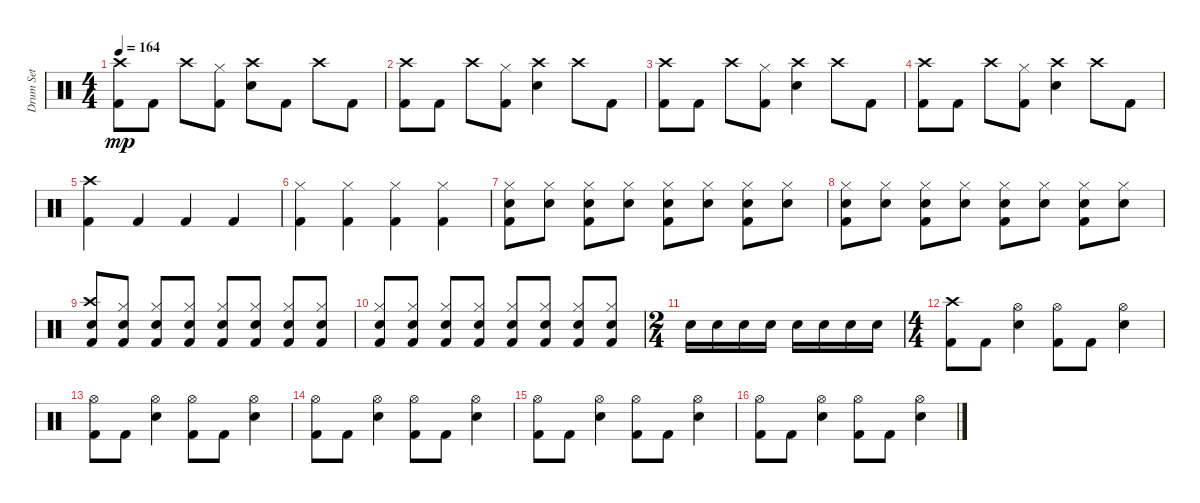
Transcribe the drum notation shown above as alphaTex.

\track ("Drum Set" "Drum Set") {instrument percussion}
\staff {score}
\articulation defaults
\ts (4 4)
\tempo 164
\clef neutral
\ks c
("Kick (hit) 2" "Crash high (hit)").8{dy mp} "Kick (hit) 2".8 "Crash high (hit)".8 ("Kick (hit) 2" "Hi-Hat (closed)").8 ("Snare (hit) 2" "Crash high (hit)").8 "Kick (hit) 2".8 "Crash high (hit)".8 "Kick (hit) 2".8 |
("Kick (hit) 2" "Crash high (hit)").8 "Kick (hit) 2".8 "Crash high (hit)".8 ("Kick (hit) 2" "Hi-Hat (closed)").8 ("Snare (hit) 2" "Crash high (hit)").4 "Crash high (hit)".8 "Kick (hit) 2".8 |
("Kick (hit) 2" "Crash high (hit)").8 "Kick (hit) 2".8 "Crash high (hit)".8 ("Kick (hit) 2" "Hi-Hat (closed)").8 ("Snare (hit) 2" "Crash high (hit)").4 "Crash high (hit)".8 "Kick (hit) 2".8 |
("Kick (hit) 2" "Crash high (hit)").8 "Kick (hit) 2".8 "Crash high (hit)".8 ("Kick (hit) 2" "Hi-Hat (closed)").8 ("Snare (hit) 2" "Crash high (hit)").4 "Crash high (hit)".8 "Kick (hit) 2".8 |
("Kick (hit) 2" "Crash high (hit)").4 "Kick (hit) 2".4 "Kick (hit) 2".4 "Kick (hit) 2".4 |
("Kick (hit) 2" "Hi-Hat (closed)").4 ("Kick (hit) 2" "Hi-Hat (closed)").4 ("Kick (hit) 2" "Hi-Hat (closed)").4 ("Kick (hit) 2" "Hi-Hat (closed)").4 |
("Kick (hit) 2" "Snare (hit) 2" "Hi-Hat (closed)").8 ("Snare (hit) 2" "Hi-Hat (closed)").8 ("Kick (hit) 2" "Snare (hit) 2" "Hi-Hat (closed)").8 ("Snare (hit) 2" "Hi-Hat (closed)").8 ("Kick (hit) 2" "Snare (hit) 2" "Hi-Hat (closed)").8 ("Snare (hit) 2" "Hi-Hat (closed)").8 ("Kick (hit) 2" "Snare (hit) 2" "Hi-Hat (closed)").8 ("Snare (hit) 2" "Hi-Hat (closed)").8 |
("Kick (hit) 2" "Snare (hit) 2" "Hi-Hat (closed)").8 ("Snare (hit) 2" "Hi-Hat (closed)").8 ("Kick (hit) 2" "Snare (hit) 2" "Hi-Hat (closed)").8 ("Snare (hit) 2" "Hi-Hat (closed)").8 ("Kick (hit) 2" "Snare (hit) 2" "Hi-Hat (closed)").8 ("Snare (hit) 2" "Hi-Hat (closed)").8 ("Kick (hit) 2" "Snare (hit) 2" "Hi-Hat (closed)").8 ("Snare (hit) 2" "Hi-Hat (closed)").8 |
("Kick (hit) 2" "Snare (hit) 2" "Crash high (hit)").8 ("Kick (hit) 2" "Snare (hit) 2" "Hi-Hat (closed)").8 ("Kick (hit) 2" "Snare (hit) 2" "Hi-Hat (closed)").8 ("Kick (hit) 2" "Snare (hit) 2" "Hi-Hat (closed)").8 ("Kick (hit) 2" "Snare (hit) 2" "Hi-Hat (closed)").8 ("Kick (hit) 2" "Snare (hit) 2" "Hi-Hat (closed)").8 ("Kick (hit) 2" "Snare (hit) 2" "Hi-Hat (closed)").8 ("Kick (hit) 2" "Snare (hit) 2" "Hi-Hat (closed)").8 |
("Kick (hit) 2" "Snare (hit) 2" "Hi-Hat (closed)").8 ("Kick (hit) 2" "Snare (hit) 2" "Hi-Hat (closed)").8 ("Kick (hit) 2" "Snare (hit) 2" "Hi-Hat (closed)").8 ("Kick (hit) 2" "Snare (hit) 2" "Hi-Hat (closed)").8 ("Kick (hit) 2" "Snare (hit) 2" "Hi-Hat (closed)").8 ("Kick (hit) 2" "Snare (hit) 2" "Hi-Hat (closed)").8 ("Kick (hit) 2" "Snare (hit) 2" "Hi-Hat (closed)").8 ("Kick (hit) 2" "Snare (hit) 2" "Hi-Hat (closed)").8 |
\ts (2 4)
"Snare (hit) 2".16 "Snare (hit) 2".16 "Snare (hit) 2".16 "Snare (hit) 2".16 "Snare (hit) 2".16 "Snare (hit) 2".16 "Snare (hit) 2".16 "Snare (hit) 2".16 |
\ts (4 4)
("Kick (hit) 2" "Crash high (hit)").8 "Kick (hit) 2".8 ("Snare (hit) 2" "Hi-Hat (open)").4 ("Kick (hit) 2" "Hi-Hat (open)").8 "Kick (hit) 2".8 ("Snare (hit) 2" "Hi-Hat (open)").4 |
("Kick (hit) 2" "Hi-Hat (open)").8 "Kick (hit) 2".8 ("Snare (hit) 2" "Hi-Hat (open)").4 ("Kick (hit) 2" "Hi-Hat (open)").8 "Kick (hit) 2".8 ("Snare (hit) 2" "Hi-Hat (open)").4 |
("Kick (hit) 2" "Hi-Hat (open)").8 "Kick (hit) 2".8 ("Snare (hit) 2" "Hi-Hat (open)").4 ("Kick (hit) 2" "Hi-Hat (open)").8 "Kick (hit) 2".8 ("Snare (hit) 2" "Hi-Hat (open)").4 |
("Kick (hit) 2" "Hi-Hat (open)").8 "Kick (hit) 2".8 ("Snare (hit) 2" "Hi-Hat (open)").4 ("Kick (hit) 2" "Hi-Hat (open)").8 "Kick (hit) 2".8 ("Snare (hit) 2" "Hi-Hat (open)").4 |
("Kick (hit) 2" "Hi-Hat (open)").8 "Kick (hit) 2".8 ("Snare (hit) 2" "Hi-Hat (open)").4 ("Kick (hit) 2" "Hi-Hat (open)").8 "Kick (hit) 2".8 ("Snare (hit) 2" "Hi-Hat (open)").4
